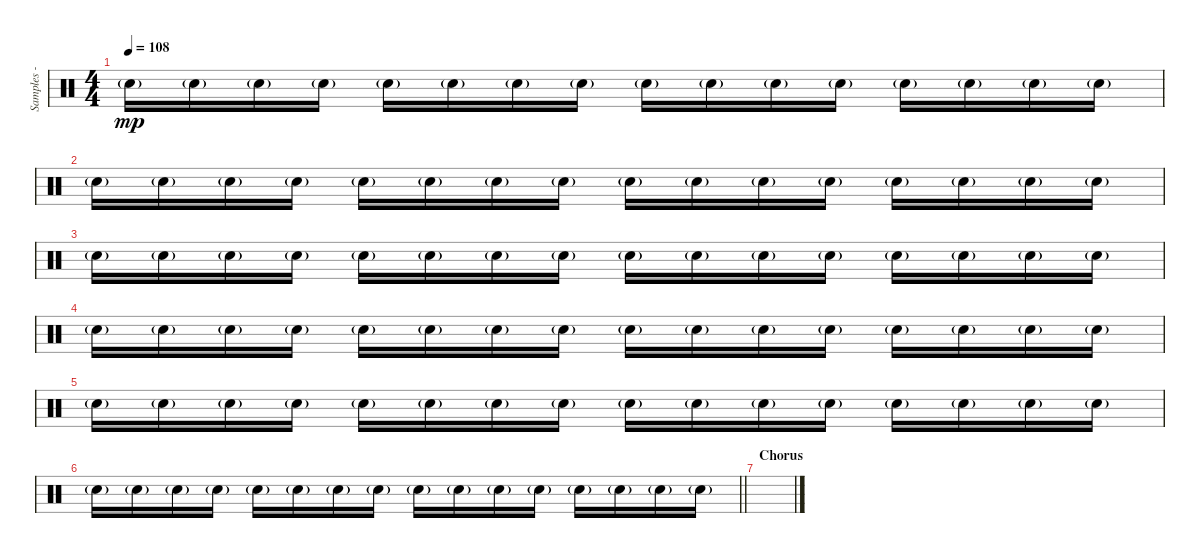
\track ("Samples - Joe Hahn" "Samples - ") {instrument percussion}
\staff {score}
\articulation defaults
\ts (4 4)
\tempo 108
\clef neutral
\ks c "Electric Snare (hit)"{g}.16{dy mp} "Electric Snare (hit)"{g}.16 "Electric Snare (hit)"{g}.16 "Electric Snare (hit)"{g}.16 "Electric Snare (hit)"{g}.16 "Electric Snare (hit)"{g}.16 "Electric Snare (hit)"{g}.16 "Electric Snare (hit)"{g}.16 "Electric Snare (hit)"{g}.16 "Electric Snare (hit)"{g}.16 "Electric Snare (hit)"{g}.16 "Electric Snare (hit)"{g}.16 "Electric Snare (hit)"{g}.16 "Electric Snare (hit)"{g}.16 "Electric Snare (hit)"{g}.16 "Electric Snare (hit)"{g}.16
|
"Electric Snare (hit)"{g}.16 "Electric Snare (hit)"{g}.16 "Electric Snare (hit)"{g}.16 "Electric Snare (hit)"{g}.16 "Electric Snare (hit)"{g}.16 "Electric Snare (hit)"{g}.16 "Electric Snare (hit)"{g}.16 "Electric Snare (hit)"{g}.16 "Electric Snare (hit)"{g}.16 "Electric Snare (hit)"{g}.16 "Electric Snare (hit)"{g}.16 "Electric Snare (hit)"{g}.16 "Electric Snare (hit)"{g}.16 "Electric Snare (hit)"{g}.16 "Electric Snare (hit)"{g}.16 "Electric Snare (hit)"{g}.16 |
"Electric Snare (hit)"{g}.16 "Electric Snare (hit)"{g}.16 "Electric Snare (hit)"{g}.16 "Electric Snare (hit)"{g}.16 "Electric Snare (hit)"{g}.16 "Electric Snare (hit)"{g}.16 "Electric Snare (hit)"{g}.16 "Electric Snare (hit)"{g}.16 "Electric Snare (hit)"{g}.16 "Electric Snare (hit)"{g}.16 "Electric Snare (hit)"{g}.16 "Electric Snare (hit)"{g}.16 "Electric Snare (hit)"{g}.16 "Electric Snare (hit)"{g}.16 "Electric Snare (hit)"{g}.16 "Electric Snare (hit)"{g}.16 |
"Electric Snare (hit)"{g}.16 "Electric Snare (hit)"{g}.16 "Electric Snare (hit)"{g}.16 "Electric Snare (hit)"{g}.16 "Electric Snare (hit)"{g}.16 "Electric Snare (hit)"{g}.16 "Electric Snare (hit)"{g}.16 "Electric Snare (hit)"{g}.16 "Electric Snare (hit)"{g}.16 "Electric Snare (hit)"{g}.16 "Electric Snare (hit)"{g}.16 "Electric Snare (hit)"{g}.16 "Electric Snare (hit)"{g}.16 "Electric Snare (hit)"{g}.16 "Electric Snare (hit)"{g}.16 "Electric Snare (hit)"{g}.16 |
"Electric Snare (hit)"{g}.16 "Electric Snare (hit)"{g}.16 "Electric Snare (hit)"{g}.16 "Electric Snare (hit)"{g}.16 "Electric Snare (hit)"{g}.16 "Electric Snare (hit)"{g}.16 "Electric Snare (hit)"{g}.16 "Electric Snare (hit)"{g}.16 "Electric Snare (hit)"{g}.16 "Electric Snare (hit)"{g}.16 "Electric Snare (hit)"{g}.16 "Electric Snare (hit)"{g}.16 "Electric Snare (hit)"{g}.16 "Electric Snare (hit)"{g}.16 "Electric Snare (hit)"{g}.16 "Electric Snare (hit)"{g}.16 |
\barLineRight lightlight "Electric Snare (hit)"{g}.16 "Electric Snare (hit)"{g}.16 "Electric Snare (hit)"{g}.16 "Electric Snare (hit)"{g}.16 "Electric Snare (hit)"{g}.16 "Electric Snare (hit)"{g}.16 "Electric Snare (hit)"{g}.16 "Electric Snare (hit)"{g}.16 "Electric Snare (hit)"{g}.16 "Electric Snare (hit)"{g}.16 "Electric Snare (hit)"{g}.16 "Electric Snare (hit)"{g}.16 "Electric Snare (hit)"{g}.16 "Electric Snare (hit)"{g}.16 "Electric Snare (hit)"{g}.16 "Electric Snare (hit)"{g}.16
|
\section ("" "Chorus")
